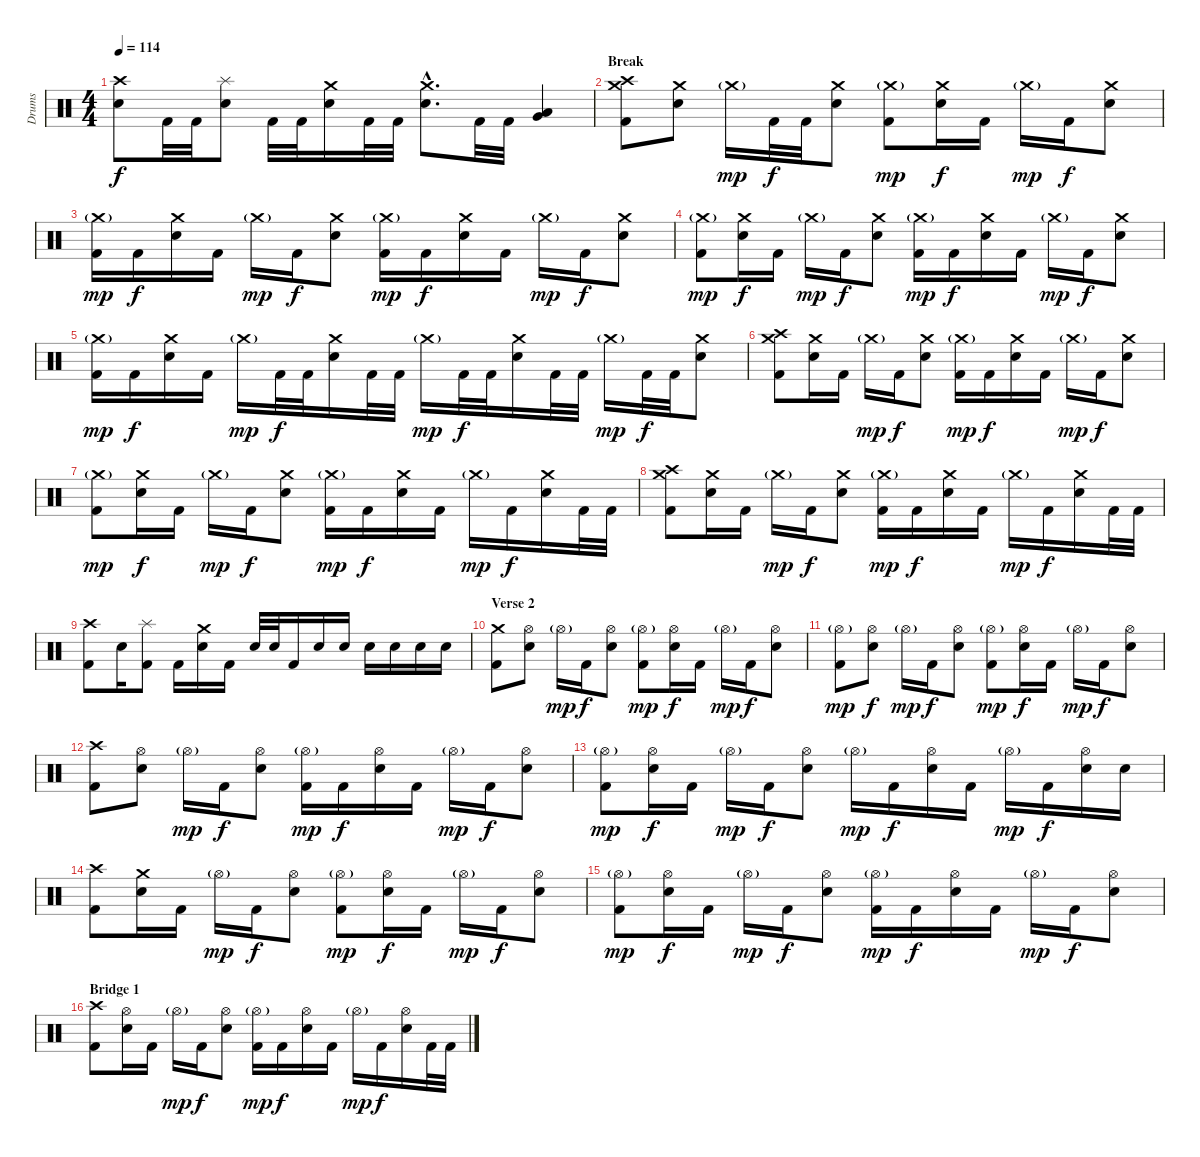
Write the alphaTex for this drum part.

\track ("Drums" "Drums") {instrument percussion}
\staff {score}
\articulation defaults
\ts (4 4)
\tempo 114
\clef neutral
\ks c
("Crash high (hit)" "Snare (hit) 2").8{dy f} "Kick (hit) 2".32 "Kick (hit) 2".32 ("Splash (hit)" "Snare (hit) 2").8 "Kick (hit) 2".32 "Kick (hit) 2".32 ("Crash medium (hit)" "Snare (hit) 2").16 "Kick (hit) 2".32 "Kick (hit) 2".32 ("Crash medium (hit)"{hac} "Snare (hit) 2"{hac}).8{d} "Kick (hit) 2".32 "Kick (hit) 2".32 ("Very Low Tom (hit)" "Low Floor Tom (hit)").4 |
\section ("" "Break")
("Crash medium (hit)" "Crash high (hit)" "Kick (hit) 2").8 ("Crash medium (hit)" "Snare (hit) 2").8 "Crash medium (hit)"{g}.16{dy mp} "Kick (hit) 2".32{dy f} "Kick (hit) 2".32 ("Crash medium (hit)" "Snare (hit) 2").8 ("Crash medium (hit)"{g} "Kick (hit) 2").8{dy mp} ("Crash medium (hit)" "Snare (hit) 2").16{dy f} "Kick (hit) 2".16 "Crash medium (hit)"{g}.16{dy mp} "Kick (hit) 2".16{dy f} ("Crash medium (hit)" "Snare (hit) 2").8 |
("Crash medium (hit)"{g} "Kick (hit) 2").16{dy mp} "Kick (hit) 2".16{dy f} ("Crash medium (hit)" "Snare (hit) 2").16 "Kick (hit) 2".16 "Crash medium (hit)"{g}.16{dy mp} "Kick (hit) 2".16{dy f} ("Crash medium (hit)" "Snare (hit) 2").8 ("Crash medium (hit)"{g} "Kick (hit) 2").16{dy mp} "Kick (hit) 2".16{dy f} ("Crash medium (hit)" "Snare (hit) 2").16 "Kick (hit) 2".16 "Crash medium (hit)"{g}.16{dy mp} "Kick (hit) 2".16{dy f} ("Crash medium (hit)" "Snare (hit) 2").8 |
("Crash medium (hit)"{g} "Kick (hit) 2").8{dy mp} ("Crash medium (hit)" "Snare (hit) 2").16{dy f} "Kick (hit) 2".16 "Crash medium (hit)"{g}.16{dy mp} "Kick (hit) 2".16{dy f} ("Crash medium (hit)" "Snare (hit) 2").8 ("Crash medium (hit)"{g} "Kick (hit) 2").16{dy mp} "Kick (hit) 2".16{dy f} ("Crash medium (hit)" "Snare (hit) 2").16 "Kick (hit) 2".16 "Crash medium (hit)"{g}.16{dy mp} "Kick (hit) 2".16{dy f} ("Crash medium (hit)" "Snare (hit) 2").8 |
("Crash medium (hit)"{g} "Kick (hit) 2").16{dy mp} "Kick (hit) 2".16{dy f} ("Crash medium (hit)" "Snare (hit) 2").16 "Kick (hit) 2".16 "Crash medium (hit)"{g}.16{dy mp} "Kick (hit) 2".32{dy f} "Kick (hit) 2".32 ("Crash medium (hit)" "Snare (hit) 2").16 "Kick (hit) 2".32 "Kick (hit) 2".32 "Crash medium (hit)"{g}.16{dy mp} "Kick (hit) 2".32{dy f} "Kick (hit) 2".32 ("Crash medium (hit)" "Snare (hit) 2").16 "Kick (hit) 2".32 "Kick (hit) 2".32 "Crash medium (hit)"{g}.16{dy mp} "Kick (hit) 2".32{dy f} "Kick (hit) 2".32 ("Crash medium (hit)" "Snare (hit) 2").8 |
("Crash medium (hit)" "Crash high (hit)" "Kick (hit) 2").8 ("Crash medium (hit)" "Snare (hit) 2").16 "Kick (hit) 2".16 "Crash medium (hit)"{g}.16{dy mp} "Kick (hit) 2".16{dy f} ("Crash medium (hit)" "Snare (hit) 2").8 ("Crash medium (hit)"{g} "Kick (hit) 2").16{dy mp} "Kick (hit) 2".16{dy f} ("Crash medium (hit)" "Snare (hit) 2").16 "Kick (hit) 2".16 "Crash medium (hit)"{g}.16{dy mp} "Kick (hit) 2".16{dy f} ("Crash medium (hit)" "Snare (hit) 2").8 |
("Crash medium (hit)"{g} "Kick (hit) 2").8{dy mp} ("Crash medium (hit)" "Snare (hit) 2").16{dy f} "Kick (hit) 2".16 "Crash medium (hit)"{g}.16{dy mp} "Kick (hit) 2".16{dy f} ("Crash medium (hit)" "Snare (hit) 2").8 ("Crash medium (hit)"{g} "Kick (hit) 2").16{dy mp} "Kick (hit) 2".16{dy f} ("Crash medium (hit)" "Snare (hit) 2").16 "Kick (hit) 2".16 "Crash medium (hit)"{g}.16{dy mp} "Kick (hit) 2".16{dy f} ("Crash medium (hit)" "Snare (hit) 2").16 "Kick (hit) 2".32 "Kick (hit) 2".32 |
("Crash medium (hit)" "Crash high (hit)" "Kick (hit) 2").8 ("Crash medium (hit)" "Snare (hit) 2").16 "Kick (hit) 2".16 "Crash medium (hit)"{g}.16{dy mp} "Kick (hit) 2".16{dy f} ("Crash medium (hit)" "Snare (hit) 2").8 ("Crash medium (hit)"{g} "Kick (hit) 2").16{dy mp} "Kick (hit) 2".16{dy f} ("Crash medium (hit)" "Snare (hit) 2").16 "Kick (hit) 2".16 "Crash medium (hit)"{g}.16{dy mp} "Kick (hit) 2".16{dy f} ("Crash medium (hit)" "Snare (hit) 2").16 "Kick (hit) 2".32 "Kick (hit) 2".32 |
("Crash high (hit)" "Kick (hit) 2").8 "Snare (hit) 2".16 ("Splash (hit)" "Kick (hit) 2").8 "Kick (hit) 2".16 ("Crash medium (hit)" "Snare (hit) 2").16 "Kick (hit) 2".16 "Snare (hit) 2".32 "Snare (hit) 2".32 "Kick (hit) 2".16 "Snare (hit) 2".16 "Snare (hit) 2".16 "Snare (hit) 2".16 "Snare (hit) 2".16 "Snare (hit) 2".16 "Snare (hit) 2".16 |
\section ("" "Verse 2")
("Crash medium (hit)" "Kick (hit) 2").8 ("Hi-Hat (open)" "Snare (hit) 2").8 "Hi-Hat (open)"{g}.16{dy mp} "Kick (hit) 2".16{dy f} ("Hi-Hat (open)" "Snare (hit) 2").8 ("Hi-Hat (open)"{g} "Kick (hit) 2").8{dy mp} ("Hi-Hat (open)" "Snare (hit) 2").16{dy f} "Kick (hit) 2".16 "Hi-Hat (open)"{g}.16{dy mp} "Kick (hit) 2".16{dy f} ("Hi-Hat (open)" "Snare (hit) 2").8 |
("Hi-Hat (open)"{g} "Kick (hit) 2").8{dy mp} ("Hi-Hat (open)" "Snare (hit) 2").8{dy f} "Hi-Hat (open)"{g}.16{dy mp} "Kick (hit) 2".16{dy f} ("Hi-Hat (open)" "Snare (hit) 2").8 ("Hi-Hat (open)"{g} "Kick (hit) 2").8{dy mp} ("Hi-Hat (open)" "Snare (hit) 2").16{dy f} "Kick (hit) 2".16 "Hi-Hat (open)"{g}.16{dy mp} "Kick (hit) 2".16{dy f} ("Hi-Hat (open)" "Snare (hit) 2").8 |
("Crash high (hit)" "Kick (hit) 2").8 ("Hi-Hat (open)" "Snare (hit) 2").8 "Hi-Hat (open)"{g}.16{dy mp} "Kick (hit) 2".16{dy f} ("Hi-Hat (open)" "Snare (hit) 2").8 ("Hi-Hat (open)"{g} "Kick (hit) 2").16{dy mp} "Kick (hit) 2".16{dy f} ("Hi-Hat (open)" "Snare (hit) 2").16 "Kick (hit) 2".16 "Hi-Hat (open)"{g}.16{dy mp} "Kick (hit) 2".16{dy f} ("Hi-Hat (open)" "Snare (hit) 2").8 |
("Hi-Hat (open)"{g} "Kick (hit) 2").8{dy mp} ("Hi-Hat (open)" "Snare (hit) 2").16{dy f} "Kick (hit) 2".16 "Hi-Hat (open)"{g}.16{dy mp} "Kick (hit) 2".16{dy f} ("Hi-Hat (open)" "Snare (hit) 2").8 "Hi-Hat (open)"{g}.16{dy mp} "Kick (hit) 2".16{dy f} ("Hi-Hat (open)" "Snare (hit) 2").16 "Kick (hit) 2".16 "Hi-Hat (open)"{g}.16{dy mp} "Kick (hit) 2".16{dy f} ("Hi-Hat (open)" "Snare (hit) 2").16 "Snare (hit) 2".16 |
("Crash high (hit)" "Kick (hit) 2").8 ("Crash medium (hit)" "Snare (hit) 2").16 "Kick (hit) 2".16 "Hi-Hat (open)"{g}.16{dy mp} "Kick (hit) 2".16{dy f} ("Hi-Hat (open)" "Snare (hit) 2").8 ("Hi-Hat (open)"{g} "Kick (hit) 2").8{dy mp} ("Hi-Hat (open)" "Snare (hit) 2").16{dy f} "Kick (hit) 2".16 "Hi-Hat (open)"{g}.16{dy mp} "Kick (hit) 2".16{dy f} ("Hi-Hat (open)" "Snare (hit) 2").8 |
("Hi-Hat (open)"{g} "Kick (hit) 2").8{dy mp} ("Hi-Hat (open)" "Snare (hit) 2").16{dy f} "Kick (hit) 2".16 "Hi-Hat (open)"{g}.16{dy mp} "Kick (hit) 2".16{dy f} ("Hi-Hat (open)" "Snare (hit) 2").8 ("Hi-Hat (open)"{g} "Kick (hit) 2").16{dy mp} "Kick (hit) 2".16{dy f} ("Hi-Hat (open)" "Snare (hit) 2").16 "Kick (hit) 2".16 "Hi-Hat (open)"{g}.16{dy mp} "Kick (hit) 2".16{dy f} ("Hi-Hat (open)" "Snare (hit) 2").8 |
\section ("" "Bridge 1")
("Crash high (hit)" "Kick (hit) 2").8 ("Hi-Hat (open)" "Snare (hit) 2").16 "Kick (hit) 2".16 "Hi-Hat (open)"{g}.16{dy mp} "Kick (hit) 2".16{dy f} ("Hi-Hat (open)" "Snare (hit) 2").8 ("Hi-Hat (open)"{g} "Kick (hit) 2").16{dy mp} "Kick (hit) 2".16{dy f} ("Hi-Hat (open)" "Snare (hit) 2").16 "Kick (hit) 2".16 "Hi-Hat (open)"{g}.16{dy mp} "Kick (hit) 2".16{dy f} ("Hi-Hat (open)" "Snare (hit) 2").16 "Kick (hit) 2".32 "Kick (hit) 2".32
